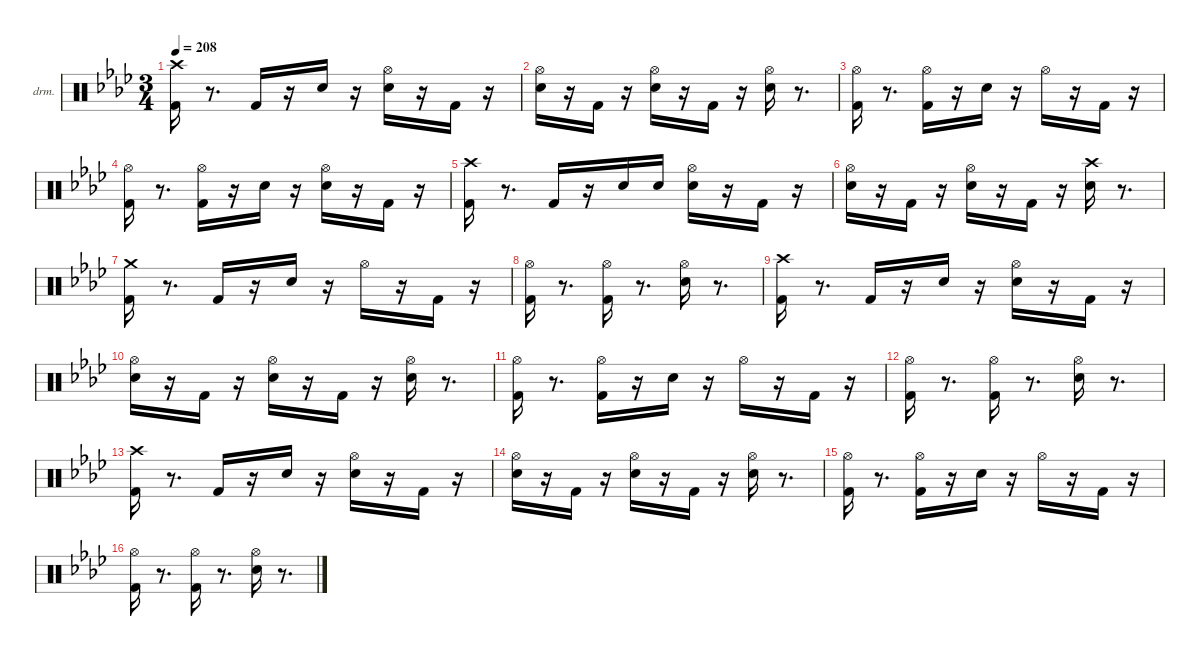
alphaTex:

\hideDynamics
\bracketExtendMode nobrackets
\firstSystemTrackNameOrientation horizontal
\otherSystemsTrackNameOrientation horizontal
\track ("EZdrummer 3" "drm.") {instrument percussion}
\staff {score}
\articulation defaults
\ts (3 4)
\tempo 208
\clef neutral
\ks fminor
("Kick (hit) 2"{acc forcenatural} "Crash high (hit)"{acc b}).16{dy ff beam Down} r.8{d beam Down} "Kick (hit) 2"{acc forcenatural}.16{dy f beam Up} r.16{beam Up} "Snare (hit) 2"{acc forcenatural}.16{dy mp beam Down} r.16{beam Down} ("Snare (hit) 2"{acc forcenatural} "Hi-Hat (open)"{acc b}).16{dy ff beam Down} r.16{beam Down} "Kick (hit) 2"{acc forcenatural}.16{beam Up} r.16{beam Up} |
("Snare (hit) 2"{acc forcenatural} "Hi-Hat (open)"{acc b}).16{beam Down} r.16{beam Down} "Kick (hit) 2"{acc forcenatural}.16{beam Up} r.16{beam Up} ("Snare (hit) 2"{acc forcenatural} "Hi-Hat (open)"{acc b}).16{beam Down} r.16{beam Down} "Kick (hit) 2"{acc forcenatural}.16{beam Up} r.16{beam Up} ("Snare (hit) 2"{acc forcenatural} "Hi-Hat (open)"{acc b}).16{beam Down} r.8{d beam Down} |
("Kick (hit) 2"{acc forcenatural} "Hi-Hat (open)"{acc b}).16{beam Down} r.8{d beam Down} ("Kick (hit) 2"{acc forcenatural} "Hi-Hat (open)"{acc b}).16{dy f beam Down} r.16{beam Down} "Snare (hit) 2"{acc forcenatural}.16{dy ff beam Down} r.16{beam Down} "Hi-Hat (open)"{acc b}.16{dy f beam Down} r.16{beam Down} "Kick (hit) 2"{acc forcenatural}.16{beam Up} r.16{beam Up} |
("Kick (hit) 2"{acc forcenatural} "Hi-Hat (open)"{acc b}).16{dy ff beam Down} r.8{d beam Down} ("Kick (hit) 2"{acc forcenatural} "Hi-Hat (open)"{acc b}).16{beam Down} r.16{beam Down} "Snare (hit) 2"{acc forcenatural}.16{dy ppp beam Down} r.16{beam Down} ("Snare (hit) 2"{acc forcenatural} "Hi-Hat (open)"{acc b}).16{dy f beam Down} r.16{beam Down} "Kick (hit) 2"{acc forcenatural}.16{dy mf beam Up} r.16{beam Up} |
("Kick (hit) 2"{acc forcenatural} "Crash high (hit)"{acc b}).16{dy fff beam Down} r.8{d beam Down} "Kick (hit) 2"{acc forcenatural}.16{dy f beam Up} r.16{beam Up} "Snare (hit) 2"{acc forcenatural}.16{dy mp beam Down} "Snare (hit) 2"{acc forcenatural}.16{beam Down} ("Snare (hit) 2"{acc forcenatural} "Hi-Hat (open)"{acc b}).16{dy ff beam Down} r.16{beam Down} "Kick (hit) 2"{acc forcenatural}.16{beam Up} r.16{beam Up} |
("Snare (hit) 2"{acc forcenatural} "Hi-Hat (open)"{acc b}).16{beam Down} r.16{beam Down} "Kick (hit) 2"{acc forcenatural}.16{beam Up} r.16{beam Up} ("Snare (hit) 2"{acc forcenatural} "Hi-Hat (open)"{acc b}).16{beam Down} r.16{beam Down} "Kick (hit) 2"{acc forcenatural}.16{beam Up} r.16{beam Up} ("Snare (hit) 2"{acc forcenatural} "Crash high (hit)"{acc b}).16{dy f beam Down} r.8{d beam Down} |
("Kick (hit) 2"{acc forcenatural} "Crash medium (hit)"{acc forcenatural}).16{dy ff beam Down} r.8{d beam Down} "Kick (hit) 2"{acc forcenatural}.16{dy f beam Up} r.16{beam Up} "Snare (hit) 2"{acc forcenatural}.16{dy ff beam Down} r.16{beam Down} "Hi-Hat (open)"{acc b}.16{dy f beam Down} r.16{beam Down} "Kick (hit) 2"{acc forcenatural}.16{beam Up} r.16{beam Up} |
("Kick (hit) 2"{acc forcenatural} "Hi-Hat (open)"{acc b}).16{dy ff beam Down} r.8{d beam Down} ("Kick (hit) 2"{acc forcenatural} "Hi-Hat (open)"{acc b}).16{beam Down} r.8{d beam Down} ("Snare (hit) 2"{acc forcenatural} "Hi-Hat (open)"{acc b}).16{beam Down} r.8{d beam Down} |
("Kick (hit) 2"{acc forcenatural} "Crash high (hit)"{acc b}).16{beam Down} r.8{d beam Down} "Kick (hit) 2"{acc forcenatural}.16{dy f beam Up} r.16{beam Up} "Snare (hit) 2"{acc forcenatural}.16{dy mp beam Down} r.16{beam Down} ("Snare (hit) 2"{acc forcenatural} "Hi-Hat (open)"{acc b}).16{dy ff beam Down} r.16{beam Down} "Kick (hit) 2"{acc forcenatural}.16{beam Up} r.16{beam Up} |
("Snare (hit) 2"{acc forcenatural} "Hi-Hat (open)"{acc b}).16{beam Down} r.16{beam Down} "Kick (hit) 2"{acc forcenatural}.16{beam Up} r.16{beam Up} ("Snare (hit) 2"{acc forcenatural} "Hi-Hat (open)"{acc b}).16{dy mf beam Down} r.16{beam Down} "Kick (hit) 2"{acc forcenatural}.16{dy ff beam Up} r.16{beam Up} ("Snare (hit) 2"{acc forcenatural} "Hi-Hat (open)"{acc b}).16{beam Down} r.8{d beam Down} |
("Kick (hit) 2"{acc forcenatural} "Hi-Hat (open)"{acc b}).16{beam Down} r.8{d beam Down} ("Kick (hit) 2"{acc forcenatural} "Hi-Hat (open)"{acc b}).16{dy f beam Down} r.16{beam Down} "Snare (hit) 2"{acc forcenatural}.16{dy ff beam Down} r.16{beam Down} "Hi-Hat (open)"{acc b}.16{dy f beam Down} r.16{beam Down} "Kick (hit) 2"{acc forcenatural}.16{beam Up} r.16{beam Up} |
("Kick (hit) 2"{acc forcenatural} "Hi-Hat (open)"{acc b}).16{dy fff beam Down} r.8{d beam Down} ("Kick (hit) 2"{acc forcenatural} "Hi-Hat (open)"{acc b}).16{dy ff beam Down} r.8{d beam Down} ("Snare (hit) 2"{acc forcenatural} "Hi-Hat (open)"{acc b}).16{beam Down} r.8{d beam Down} |
("Kick (hit) 2"{acc forcenatural} "Crash high (hit)"{acc b}).16{dy fff beam Down} r.8{d beam Down} "Kick (hit) 2"{acc forcenatural}.16{dy f beam Up} r.16{beam Up} "Snare (hit) 2"{acc forcenatural}.16{dy mp beam Down} r.16{beam Down} ("Snare (hit) 2"{acc forcenatural} "Hi-Hat (open)"{acc b}).16{dy ff beam Down} r.16{beam Down} "Kick (hit) 2"{acc forcenatural}.16{beam Up} r.16{beam Up} |
("Snare (hit) 2"{acc forcenatural} "Hi-Hat (open)"{acc b}).16{beam Down} r.16{beam Down} "Kick (hit) 2"{acc forcenatural}.16{beam Up} r.16{beam Up} ("Snare (hit) 2"{acc forcenatural} "Hi-Hat (open)"{acc b}).16{beam Down} r.16{beam Down} "Kick (hit) 2"{acc forcenatural}.16{beam Up} r.16{beam Up} ("Snare (hit) 2"{acc forcenatural} "Hi-Hat (open)"{acc b}).16{beam Down} r.8{d beam Down} |
("Kick (hit) 2"{acc forcenatural} "Hi-Hat (open)"{acc b}).16{beam Down} r.8{d beam Down} ("Kick (hit) 2"{acc forcenatural} "Hi-Hat (open)"{acc b}).16{dy f beam Down} r.16{beam Down} "Snare (hit) 2"{acc forcenatural}.16{dy ff beam Down} r.16{beam Down} "Hi-Hat (open)"{acc b}.16{dy f beam Down} r.16{beam Down} "Kick (hit) 2"{acc forcenatural}.16{beam Up} r.16{beam Up} |
("Kick (hit) 2"{acc forcenatural} "Hi-Hat (open)"{acc b}).16{dy ff beam Down} r.8{d beam Down} ("Kick (hit) 2"{acc forcenatural} "Hi-Hat (open)"{acc b}).16{beam Down} r.8{d beam Down} ("Snare (hit) 2"{acc forcenatural} "Hi-Hat (open)"{acc b}).16{beam Down} r.8{d beam Down}
